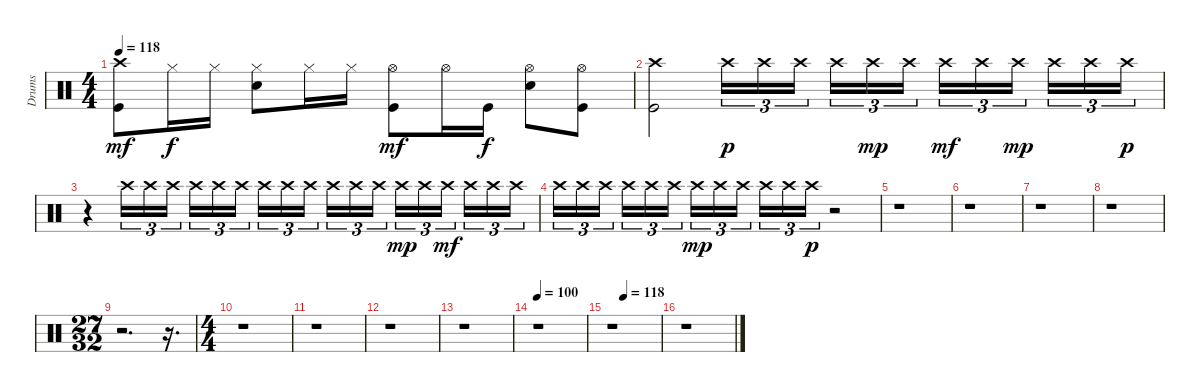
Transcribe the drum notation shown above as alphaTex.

\track ("Drums" "Drums") {instrument percussion}
\staff {score}
\articulation defaults
\ts (4 4)
\tempo 118
\clef neutral
\ks c
("Crash high (hit)" "Kick (hit)").8{dy mf} "Hi-Hat (closed)".16{dy f} "Hi-Hat (closed)".16 ("Hi-Hat (closed)" "Snare (hit) 2").8 "Hi-Hat (closed)".16 "Hi-Hat (closed)".16 ("Hi-Hat (open)" "Kick (hit)").8{dy mf} "Hi-Hat (open)".16 "Kick (hit)".16{dy f} ("Hi-Hat (open)" "Snare (hit) 2").8 ("Hi-Hat (open)" "Kick (hit)").8 |
("Crash high (hit)" "Kick (hit)").2 "Crash high (hit)".16{tu (3 2) dy p} "Crash high (hit)".16{tu (3 2)} "Crash high (hit)".16{tu (3 2)} "Crash high (hit)".16{tu (3 2)} "Crash high (hit)".16{tu (3 2) dy mp} "Crash high (hit)".16{tu (3 2)} "Crash high (hit)".16{tu (3 2) dy mf} "Crash high (hit)".16{tu (3 2)} "Crash high (hit)".16{tu (3 2) dy mp} "Crash high (hit)".16{tu (3 2)} "Crash high (hit)".16{tu (3 2)} "Crash high (hit)".16{tu (3 2) dy p} |
r.4 "Crash high (hit)".16{tu (3 2)} "Crash high (hit)".16{tu (3 2)} "Crash high (hit)".16{tu (3 2)} "Crash high (hit)".16{tu (3 2)} "Crash high (hit)".16{tu (3 2)} "Crash high (hit)".16{tu (3 2)} "Crash high (hit)".16{tu (3 2)} "Crash high (hit)".16{tu (3 2)} "Crash high (hit)".16{tu (3 2)} "Crash high (hit)".16{tu (3 2)} "Crash high (hit)".16{tu (3 2)} "Crash high (hit)".16{tu (3 2)} "Crash high (hit)".16{tu (3 2) dy mp} "Crash high (hit)".16{tu (3 2)} "Crash high (hit)".16{tu (3 2) dy mf} "Crash high (hit)".16{tu (3 2)} "Crash high (hit)".16{tu (3 2)} "Crash high (hit)".16{tu (3 2)} |
"Crash high (hit)".16{tu (3 2)} "Crash high (hit)".16{tu (3 2)} "Crash high (hit)".16{tu (3 2)} "Crash high (hit)".16{tu (3 2)} "Crash high (hit)".16{tu (3 2)} "Crash high (hit)".16{tu (3 2)} "Crash high (hit)".16{tu (3 2) dy mp} "Crash high (hit)".16{tu (3 2)} "Crash high (hit)".16{tu (3 2)} "Crash high (hit)".16{tu (3 2)} "Crash high (hit)".16{tu (3 2)} "Crash high (hit)".16{tu (3 2) dy p} r.2 |
r.1 |
r.1 |
r.1 |
r.1 |
\ts (27 32)
r.2{d} r.16{d} |
\ts (4 4)
r.1 |
r.1 |
r.1 |
r.1 |
\tempo 100
r.1 |
\tempo (118 0.25)
r.1 |
r.1
